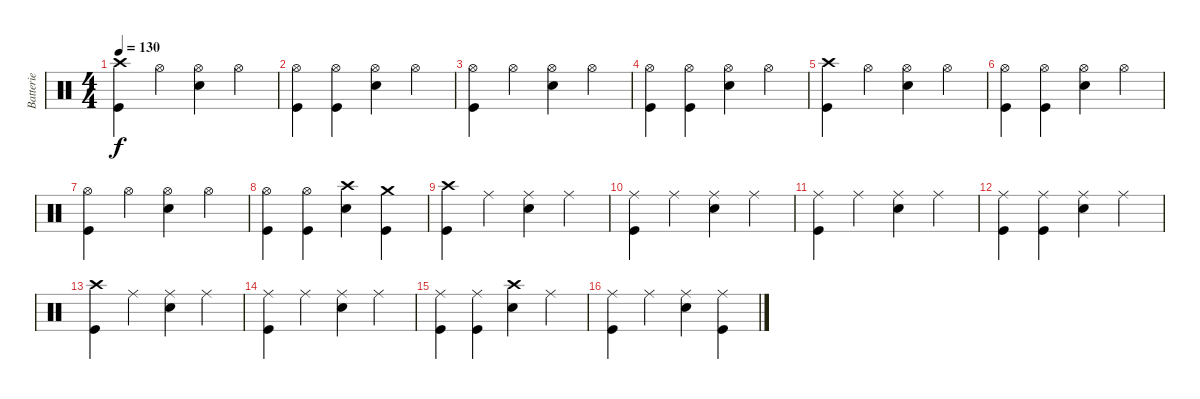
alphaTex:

\track ("Batterie" "Batterie") {instrument percussion}
\staff {score}
\articulation defaults
\ts (4 4)
\tempo 130
\clef neutral
\ks c
("Crash high (hit)" "Kick (hit)").4{dy f} "Hi-Hat (open)".4 ("Hi-Hat (open)" "Electric Snare (hit)").4 "Hi-Hat (open)".4 |
("Hi-Hat (open)" "Kick (hit)").4 ("Hi-Hat (open)" "Kick (hit)").4 ("Hi-Hat (open)" "Electric Snare (hit)").4 "Hi-Hat (open)".4 |
("Hi-Hat (open)" "Kick (hit)").4 "Hi-Hat (open)".4 ("Hi-Hat (open)" "Electric Snare (hit)").4 "Hi-Hat (open)".4 |
("Hi-Hat (open)" "Kick (hit)").4 ("Hi-Hat (open)" "Kick (hit)").4 ("Hi-Hat (open)" "Electric Snare (hit)").4 "Hi-Hat (open)".4 |
("Crash high (hit)" "Kick (hit)").4 "Hi-Hat (open)".4 ("Hi-Hat (open)" "Electric Snare (hit)").4 "Hi-Hat (open)".4 |
("Hi-Hat (open)" "Kick (hit)").4 ("Hi-Hat (open)" "Kick (hit)").4 ("Hi-Hat (open)" "Electric Snare (hit)").4 "Hi-Hat (open)".4 |
("Hi-Hat (open)" "Kick (hit)").4 "Hi-Hat (open)".4 ("Hi-Hat (open)" "Electric Snare (hit)").4 "Hi-Hat (open)".4 |
("Hi-Hat (open)" "Kick (hit)").4 ("Hi-Hat (open)" "Kick (hit)").4 ("Crash high (hit)" "Electric Snare (hit)").4 ("Crash medium (hit)" "Kick (hit)").4 |
("Crash high (hit)" "Kick (hit)").4 "Ride (middle)".4 ("Ride (middle)" "Electric Snare (hit)").4 "Ride (middle)".4 |
("Ride (middle)" "Kick (hit)").4 "Ride (middle)".4 ("Ride (middle)" "Electric Snare (hit)").4 "Ride (middle)".4 |
("Ride (middle)" "Kick (hit)").4 "Ride (middle)".4 ("Ride (middle)" "Electric Snare (hit)").4 "Ride (middle)".4 |
("Ride (middle)" "Kick (hit)").4 ("Ride (middle)" "Kick (hit)").4 ("Ride (middle)" "Electric Snare (hit)").4 "Ride (middle)".4 |
("Crash high (hit)" "Kick (hit)").4 "Ride (middle)".4 ("Ride (middle)" "Electric Snare (hit)").4 "Ride (middle)".4 |
("Ride (middle)" "Kick (hit)").4 "Ride (middle)".4 ("Ride (middle)" "Electric Snare (hit)").4 "Ride (middle)".4 |
("Ride (middle)" "Kick (hit)").4 ("Ride (middle)" "Kick (hit)").4 ("Crash high (hit)" "Electric Snare (hit)").4 "Ride (middle)".4 |
("Ride (middle)" "Kick (hit)").4 "Ride (middle)".4 ("Ride (middle)" "Electric Snare (hit)").4 ("Ride (middle)" "Kick (hit)").4
